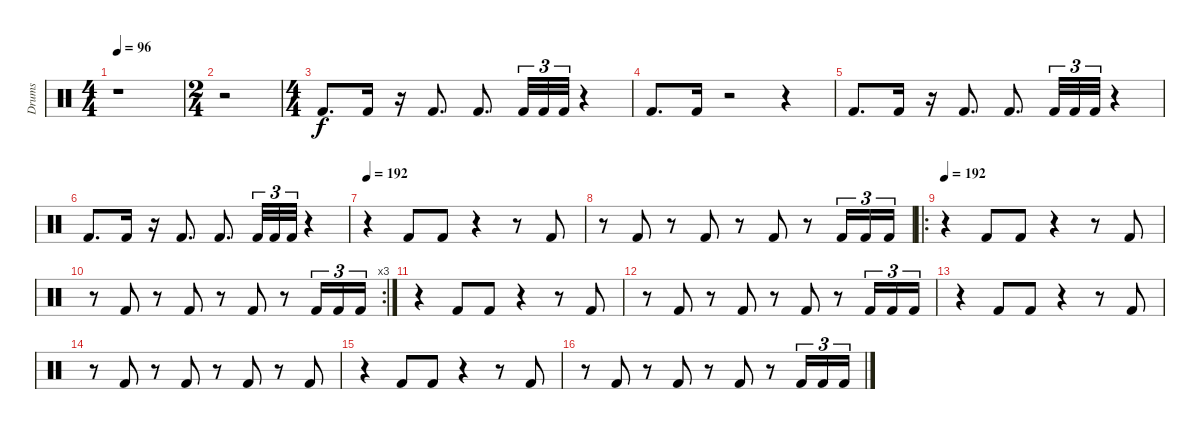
\track ("Drums" "Drums") {instrument percussion}
\staff {score}
\articulation defaults
\ts (4 4)
\tempo 96
\clef neutral
\ks c
r.1{dy f} |
\ts (2 4)
r.2 |
\ts (4 4)
"Kick (hit) 2".8{d} "Kick (hit) 2".16 r.16 "Kick (hit) 2".8{d} "Kick (hit) 2".8{d} "Kick (hit) 2".32{tu (3 2)} "Kick (hit) 2".32{tu (3 2)} "Kick (hit) 2".32{tu (3 2)} r.4 |
"Kick (hit) 2".8{d} "Kick (hit) 2".16 r.2 r.4 |
"Kick (hit) 2".8{d} "Kick (hit) 2".16 r.16 "Kick (hit) 2".8{d} "Kick (hit) 2".8{d} "Kick (hit) 2".32{tu (3 2)} "Kick (hit) 2".32{tu (3 2)} "Kick (hit) 2".32{tu (3 2)} r.4 |
"Kick (hit) 2".8{d} "Kick (hit) 2".16 r.16 "Kick (hit) 2".8{d} "Kick (hit) 2".8{d} "Kick (hit) 2".32{tu (3 2)} "Kick (hit) 2".32{tu (3 2)} "Kick (hit) 2".32{tu (3 2)} r.4 |
\tempo 192
r.4 "Kick (hit) 2".8 "Kick (hit) 2".8 r.4 r.8 "Kick (hit) 2".8 |
r.8 "Kick (hit) 2".8 r.8 "Kick (hit) 2".8 r.8 "Kick (hit) 2".8 r.8 "Kick (hit) 2".16{tu (3 2)} "Kick (hit) 2".16{tu (3 2)} "Kick (hit) 2".16{tu (3 2)} |
\ro
\tempo 192
r.4 "Kick (hit) 2".8 "Kick (hit) 2".8 r.4 r.8 "Kick (hit) 2".8 |
\rc 3
r.8 "Kick (hit) 2".8 r.8 "Kick (hit) 2".8 r.8 "Kick (hit) 2".8 r.8 "Kick (hit) 2".16{tu (3 2)} "Kick (hit) 2".16{tu (3 2)} "Kick (hit) 2".16{tu (3 2)} |
r.4 "Kick (hit) 2".8 "Kick (hit) 2".8 r.4 r.8 "Kick (hit) 2".8 |
r.8 "Kick (hit) 2".8 r.8 "Kick (hit) 2".8 r.8 "Kick (hit) 2".8 r.8 "Kick (hit) 2".16{tu (3 2)} "Kick (hit) 2".16{tu (3 2)} "Kick (hit) 2".16{tu (3 2)} |
r.4 "Kick (hit) 2".8 "Kick (hit) 2".8 r.4 r.8 "Kick (hit) 2".8 |
r.8 "Kick (hit) 2".8 r.8 "Kick (hit) 2".8 r.8 "Kick (hit) 2".8 r.8 "Kick (hit) 2".8 |
r.4 "Kick (hit) 2".8 "Kick (hit) 2".8 r.4 r.8 "Kick (hit) 2".8 |
r.8 "Kick (hit) 2".8 r.8 "Kick (hit) 2".8 r.8 "Kick (hit) 2".8 r.8 "Kick (hit) 2".16{tu (3 2)} "Kick (hit) 2".16{tu (3 2)} "Kick (hit) 2".16{tu (3 2)}
